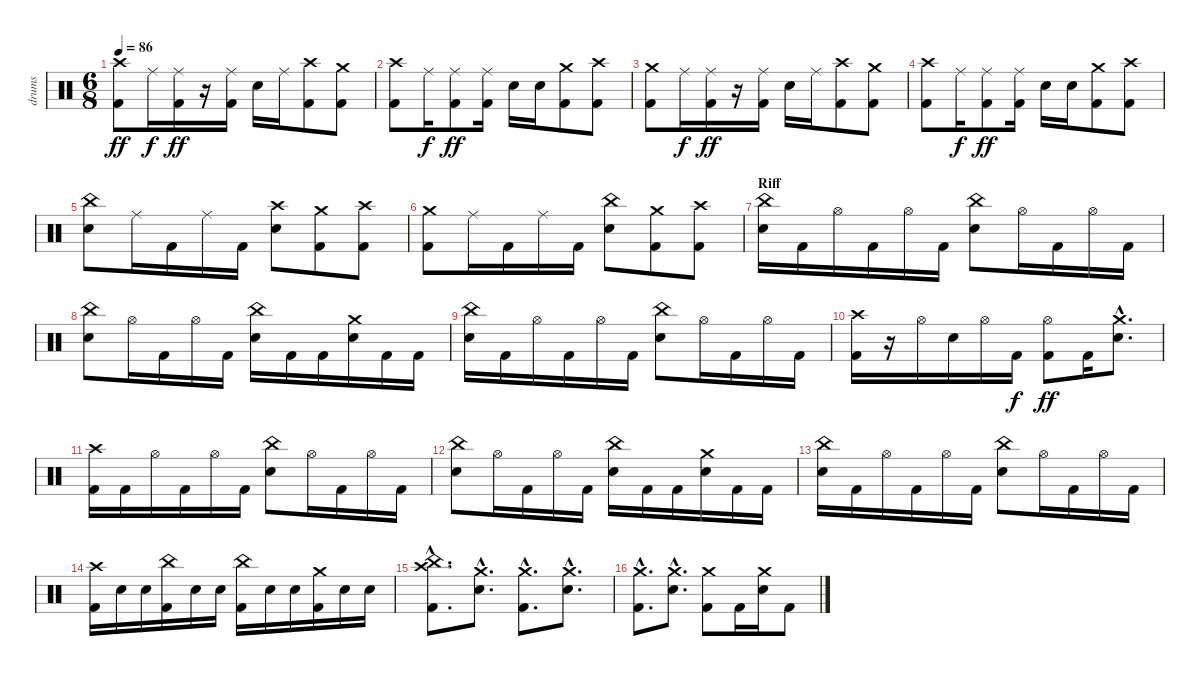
\track ("drums" "drums") {instrument percussion}
\staff {score}
\articulation defaults
\ts (6 8)
\tempo 86
\clef neutral
\ks c
("Crash high (hit)" "Kick (hit) 2").8{dy ff} "Ride (middle)".16{dy f} ("Ride (middle)" "Kick (hit) 2").16{dy ff} r.16 ("Ride (middle)" "Kick (hit) 2").16 "Snare (hit) 2".16 "Ride (middle)".16 ("Crash high (hit)" "Kick (hit) 2").8 ("Crash medium (hit)" "Kick (hit) 2").8 |
("Crash high (hit)" "Kick (hit) 2").8 "Ride (middle)".16{dy f} ("Ride (middle)" "Kick (hit) 2").8{dy ff} ("Ride (middle)" "Kick (hit) 2").16 "Snare (hit) 2".16 "Snare (hit) 2".16 ("Crash medium (hit)" "Kick (hit) 2").8 ("Crash high (hit)" "Kick (hit) 2").8 |
("Crash medium (hit)" "Kick (hit) 2").8 "Ride (middle)".16{dy f} ("Ride (middle)" "Kick (hit) 2").16{dy ff} r.16 ("Ride (middle)" "Kick (hit) 2").16 "Snare (hit) 2".16 "Ride (middle)".16 ("Crash high (hit)" "Kick (hit) 2").8 ("Crash medium (hit)" "Kick (hit) 2").8 |
("Crash high (hit)" "Kick (hit) 2").8 "Ride (middle)".16{dy f} ("Ride (middle)" "Kick (hit) 2").8{dy ff} ("Ride (middle)" "Kick (hit) 2").16 "Snare (hit) 2".16 "Snare (hit) 2".16 ("Crash medium (hit)" "Kick (hit) 2").8 ("Crash high (hit)" "Kick (hit) 2").8 |
("China (hit)" "Snare (hit) 2").8 "Ride (middle)".16 "Kick (hit) 2".16 "Ride (middle)".16 "Kick (hit) 2".16 ("Crash high (hit)" "Snare (hit) 2").8 ("Crash medium (hit)" "Kick (hit) 2").8 ("Crash high (hit)" "Kick (hit) 2").8 |
("Crash medium (hit)" "Kick (hit) 2").8 "Ride (middle)".16 "Kick (hit) 2".16 "Ride (middle)".16 "Kick (hit) 2".16 ("China (hit)" "Snare (hit) 2").8 ("Crash medium (hit)" "Kick (hit) 2").8 ("Crash high (hit)" "Kick (hit) 2").8 |
\section ("" "Riff")
("China (hit)" "Snare (hit) 2").16 "Kick (hit) 2".16 "Hi-Hat (open)".16 "Kick (hit) 2".16 "Hi-Hat (open)".16 "Kick (hit) 2".16 ("China (hit)" "Snare (hit) 2").8 "Hi-Hat (open)".16 "Kick (hit) 2".16 "Hi-Hat (open)".16 "Kick (hit) 2".16 |
("China (hit)" "Snare (hit) 2").8 "Hi-Hat (open)".16 "Kick (hit) 2".16 "Hi-Hat (open)".16 "Kick (hit) 2".16 ("China (hit)" "Snare (hit) 2").16 "Kick (hit) 2".16 "Kick (hit) 2".16 ("Crash medium (hit)" "Snare (hit) 2").16 "Kick (hit) 2".16 "Kick (hit) 2".16 |
("China (hit)" "Snare (hit) 2").16 "Kick (hit) 2".16 "Hi-Hat (open)".16 "Kick (hit) 2".16 "Hi-Hat (open)".16 "Kick (hit) 2".16 ("China (hit)" "Snare (hit) 2").8 "Hi-Hat (open)".16 "Kick (hit) 2".16 "Hi-Hat (open)".16 "Kick (hit) 2".16 |
("Crash high (hit)" "Kick (hit) 2").16 r.16 "Hi-Hat (open)".16 "Snare (hit) 2".16 "Hi-Hat (open)".16 "Kick (hit) 2".16{dy f} ("Hi-Hat (open)" "Kick (hit) 2").8{dy ff} "Kick (hit) 2".16 ("Crash medium (hit)"{hac} "Snare (hit) 2"{hac}).8{d} |
("Crash high (hit)" "Kick (hit) 2").16 "Kick (hit) 2".16 "Hi-Hat (open)".16 "Kick (hit) 2".16 "Hi-Hat (open)".16 "Kick (hit) 2".16 ("China (hit)" "Snare (hit) 2").8 "Hi-Hat (open)".16 "Kick (hit) 2".16 "Hi-Hat (open)".16 "Kick (hit) 2".16 |
("China (hit)" "Snare (hit) 2").8 "Hi-Hat (open)".16 "Kick (hit) 2".16 "Hi-Hat (open)".16 "Kick (hit) 2".16 ("China (hit)" "Snare (hit) 2").16 "Kick (hit) 2".16 "Kick (hit) 2".16 ("Crash medium (hit)" "Snare (hit) 2").16 "Kick (hit) 2".16 "Kick (hit) 2".16 |
("China (hit)" "Snare (hit) 2").16 "Kick (hit) 2".16 "Hi-Hat (open)".16 "Kick (hit) 2".16 "Hi-Hat (open)".16 "Kick (hit) 2".16 ("China (hit)" "Snare (hit) 2").8 "Hi-Hat (open)".16 "Kick (hit) 2".16 "Hi-Hat (open)".16 "Kick (hit) 2".16 |
("Crash high (hit)" "Kick (hit) 2").16 "Snare (hit) 2".16 "Snare (hit) 2".16 ("China (hit)" "Kick (hit) 2").16 "Snare (hit) 2".16 "Snare (hit) 2".16 ("China (hit)" "Kick (hit) 2").16 "Snare (hit) 2".16 "Snare (hit) 2".16 ("Crash medium (hit)" "Kick (hit) 2").16 "Snare (hit) 2".16 "Snare (hit) 2".16 |
("Crash high (hit)"{hac} "China (hit)"{hac} "Kick (hit) 2"{hac}).8{d} ("Crash medium (hit)"{hac} "Snare (hit) 2"{hac}).8{d} ("Crash medium (hit)"{hac} "Kick (hit) 2"{hac}).8{d} ("Crash medium (hit)"{hac} "Snare (hit) 2"{hac}).8{d} |
("Crash medium (hit)"{hac} "Kick (hit) 2"{hac}).8{d} ("Crash medium (hit)"{hac} "Snare (hit) 2"{hac}).8{d} ("Crash medium (hit)" "Kick (hit) 2").8 "Kick (hit) 2".16 ("Crash medium (hit)" "Snare (hit) 2").16 "Kick (hit) 2".8
